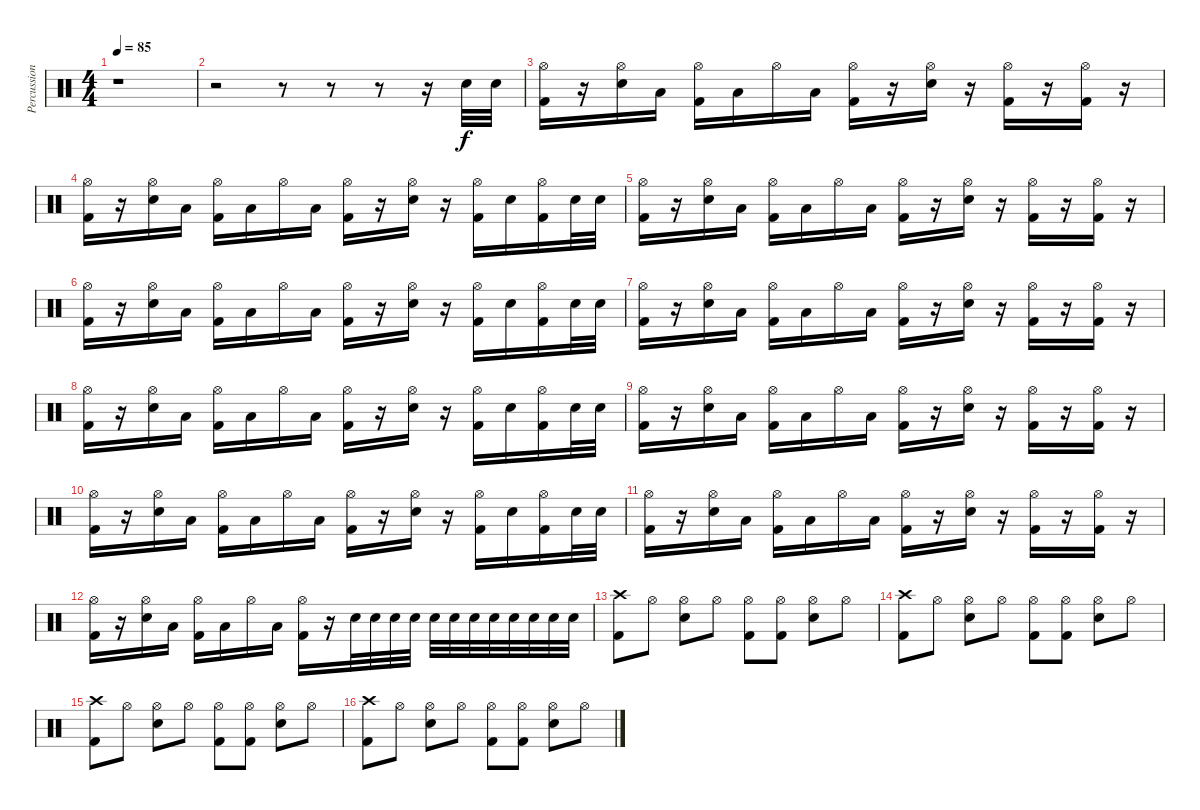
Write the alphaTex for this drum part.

\track ("Percussion" "Percussion") {instrument percussion}
\staff {score}
\articulation defaults
\ts (4 4)
\tempo 85
\clef neutral
\ks c
r.1{dy f} |
r.2 r.8 r.8 r.8 r.16 "Snare (hit) 2".32 "Snare (hit) 2".32 |
("Hi-Hat (open)" "Kick (hit) 2").16 r.16 ("Hi-Hat (open)" "Snare (hit) 2").16 "Low Floor Tom (hit)".16 ("Hi-Hat (open)" "Kick (hit) 2").16 "Low Floor Tom (hit)".16 "Hi-Hat (open)".16 "Low Floor Tom (hit)".16 ("Hi-Hat (open)" "Kick (hit) 2").16 r.16 ("Hi-Hat (open)" "Snare (hit) 2").16 r.16 ("Hi-Hat (open)" "Kick (hit) 2").16 r.16 ("Hi-Hat (open)" "Kick (hit) 2").16 r.16 |
("Hi-Hat (open)" "Kick (hit) 2").16 r.16 ("Hi-Hat (open)" "Snare (hit) 2").16 "Low Floor Tom (hit)".16 ("Hi-Hat (open)" "Kick (hit) 2").16 "Low Floor Tom (hit)".16 "Hi-Hat (open)".16 "Low Floor Tom (hit)".16 ("Hi-Hat (open)" "Kick (hit) 2").16 r.16 ("Hi-Hat (open)" "Snare (hit) 2").16 r.16 ("Hi-Hat (open)" "Kick (hit) 2").16 "Snare (hit) 2".16 ("Hi-Hat (open)" "Kick (hit) 2").16 "Snare (hit) 2".32 "Snare (hit) 2".32 |
("Hi-Hat (open)" "Kick (hit) 2").16 r.16 ("Hi-Hat (open)" "Snare (hit) 2").16 "Low Floor Tom (hit)".16 ("Hi-Hat (open)" "Kick (hit) 2").16 "Low Floor Tom (hit)".16 "Hi-Hat (open)".16 "Low Floor Tom (hit)".16 ("Hi-Hat (open)" "Kick (hit) 2").16 r.16 ("Hi-Hat (open)" "Snare (hit) 2").16 r.16 ("Hi-Hat (open)" "Kick (hit) 2").16 r.16 ("Hi-Hat (open)" "Kick (hit) 2").16 r.16 |
("Hi-Hat (open)" "Kick (hit) 2").16 r.16 ("Hi-Hat (open)" "Snare (hit) 2").16 "Low Floor Tom (hit)".16 ("Hi-Hat (open)" "Kick (hit) 2").16 "Low Floor Tom (hit)".16 "Hi-Hat (open)".16 "Low Floor Tom (hit)".16 ("Hi-Hat (open)" "Kick (hit) 2").16 r.16 ("Hi-Hat (open)" "Snare (hit) 2").16 r.16 ("Hi-Hat (open)" "Kick (hit) 2").16 "Snare (hit) 2".16 ("Hi-Hat (open)" "Kick (hit) 2").16 "Snare (hit) 2".32 "Snare (hit) 2".32 |
("Hi-Hat (open)" "Kick (hit) 2").16 r.16 ("Hi-Hat (open)" "Snare (hit) 2").16 "Low Floor Tom (hit)".16 ("Hi-Hat (open)" "Kick (hit) 2").16 "Low Floor Tom (hit)".16 "Hi-Hat (open)".16 "Low Floor Tom (hit)".16 ("Hi-Hat (open)" "Kick (hit) 2").16 r.16 ("Hi-Hat (open)" "Snare (hit) 2").16 r.16 ("Hi-Hat (open)" "Kick (hit) 2").16 r.16 ("Hi-Hat (open)" "Kick (hit) 2").16 r.16 |
("Hi-Hat (open)" "Kick (hit) 2").16 r.16 ("Hi-Hat (open)" "Snare (hit) 2").16 "Low Floor Tom (hit)".16 ("Hi-Hat (open)" "Kick (hit) 2").16 "Low Floor Tom (hit)".16 "Hi-Hat (open)".16 "Low Floor Tom (hit)".16 ("Hi-Hat (open)" "Kick (hit) 2").16 r.16 ("Hi-Hat (open)" "Snare (hit) 2").16 r.16 ("Hi-Hat (open)" "Kick (hit) 2").16 "Snare (hit) 2".16 ("Hi-Hat (open)" "Kick (hit) 2").16 "Snare (hit) 2".32 "Snare (hit) 2".32 |
("Hi-Hat (open)" "Kick (hit) 2").16 r.16 ("Hi-Hat (open)" "Snare (hit) 2").16 "Low Floor Tom (hit)".16 ("Hi-Hat (open)" "Kick (hit) 2").16 "Low Floor Tom (hit)".16 "Hi-Hat (open)".16 "Low Floor Tom (hit)".16 ("Hi-Hat (open)" "Kick (hit) 2").16 r.16 ("Hi-Hat (open)" "Snare (hit) 2").16 r.16 ("Hi-Hat (open)" "Kick (hit) 2").16 r.16 ("Hi-Hat (open)" "Kick (hit) 2").16 r.16 |
("Hi-Hat (open)" "Kick (hit) 2").16 r.16 ("Hi-Hat (open)" "Snare (hit) 2").16 "Low Floor Tom (hit)".16 ("Hi-Hat (open)" "Kick (hit) 2").16 "Low Floor Tom (hit)".16 "Hi-Hat (open)".16 "Low Floor Tom (hit)".16 ("Hi-Hat (open)" "Kick (hit) 2").16 r.16 ("Hi-Hat (open)" "Snare (hit) 2").16 r.16 ("Hi-Hat (open)" "Kick (hit) 2").16 "Snare (hit) 2".16 ("Hi-Hat (open)" "Kick (hit) 2").16 "Snare (hit) 2".32 "Snare (hit) 2".32 |
("Hi-Hat (open)" "Kick (hit) 2").16 r.16 ("Hi-Hat (open)" "Snare (hit) 2").16 "Low Floor Tom (hit)".16 ("Hi-Hat (open)" "Kick (hit) 2").16 "Low Floor Tom (hit)".16 "Hi-Hat (open)".16 "Low Floor Tom (hit)".16 ("Hi-Hat (open)" "Kick (hit) 2").16 r.16 ("Hi-Hat (open)" "Snare (hit) 2").16 r.16 ("Hi-Hat (open)" "Kick (hit) 2").16 r.16 ("Hi-Hat (open)" "Kick (hit) 2").16 r.16 |
("Hi-Hat (open)" "Kick (hit) 2").16 r.16 ("Hi-Hat (open)" "Snare (hit) 2").16 "Low Floor Tom (hit)".16 ("Hi-Hat (open)" "Kick (hit) 2").16 "Low Floor Tom (hit)".16 "Hi-Hat (open)".16 "Low Floor Tom (hit)".16 ("Hi-Hat (open)" "Kick (hit) 2").16 r.16 "Snare (hit) 2".32 "Snare (hit) 2".32 "Snare (hit) 2".32 "Snare (hit) 2".32 "Snare (hit) 2".32 "Snare (hit) 2".32 "Snare (hit) 2".32 "Snare (hit) 2".32 "Snare (hit) 2".32 "Snare (hit) 2".32 "Snare (hit) 2".32 "Snare (hit) 2".32 |
("Crash high (hit)" "Kick (hit) 2").8 "Hi-Hat (open)".8 ("Hi-Hat (open)" "Snare (hit) 2").8 "Hi-Hat (open)".8 ("Hi-Hat (open)" "Kick (hit) 2").8 ("Hi-Hat (open)" "Kick (hit) 2").8 ("Hi-Hat (open)" "Snare (hit) 2").8 "Hi-Hat (open)".8 |
("Crash high (hit)" "Kick (hit) 2").8 "Hi-Hat (open)".8 ("Hi-Hat (open)" "Snare (hit) 2").8 "Hi-Hat (open)".8 ("Hi-Hat (open)" "Kick (hit) 2").8 ("Hi-Hat (open)" "Kick (hit) 2").8 ("Hi-Hat (open)" "Snare (hit) 2").8 "Hi-Hat (open)".8 |
("Crash high (hit)" "Kick (hit) 2").8 "Hi-Hat (open)".8 ("Hi-Hat (open)" "Snare (hit) 2").8 "Hi-Hat (open)".8 ("Hi-Hat (open)" "Kick (hit) 2").8 ("Hi-Hat (open)" "Kick (hit) 2").8 ("Hi-Hat (open)" "Snare (hit) 2").8 "Hi-Hat (open)".8 |
("Crash high (hit)" "Kick (hit) 2").8 "Hi-Hat (open)".8 ("Hi-Hat (open)" "Snare (hit) 2").8 "Hi-Hat (open)".8 ("Hi-Hat (open)" "Kick (hit) 2").8 ("Hi-Hat (open)" "Kick (hit) 2").8 ("Hi-Hat (open)" "Snare (hit) 2").8 "Hi-Hat (open)".8
